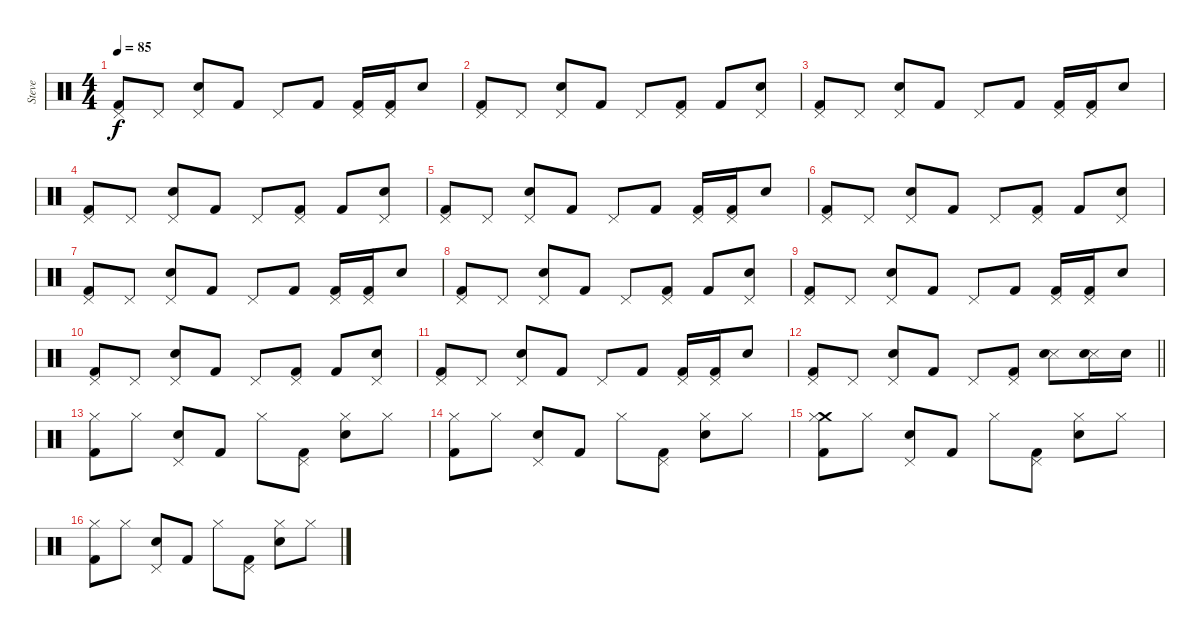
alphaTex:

\track ("Steve" "Steve") {instrument percussion}
\staff {score}
\articulation defaults
\ts (4 4)
\tempo 85
\clef neutral
\ks c
("Kick (hit) 2" "Pedal Hi-Hat (hit)").8{dy f} "Pedal Hi-Hat (hit)".8 ("Electric Snare (hit)" "Pedal Hi-Hat (hit)").8 "Kick (hit) 2".8 "Pedal Hi-Hat (hit)".8 "Kick (hit) 2".8 ("Kick (hit) 2" "Pedal Hi-Hat (hit)").16 ("Kick (hit) 2" "Pedal Hi-Hat (hit)").16 "Electric Snare (hit)".8 |
("Kick (hit) 2" "Pedal Hi-Hat (hit)").8 "Pedal Hi-Hat (hit)".8 ("Electric Snare (hit)" "Pedal Hi-Hat (hit)").8 "Kick (hit) 2".8 "Pedal Hi-Hat (hit)".8 ("Kick (hit) 2" "Pedal Hi-Hat (hit)").8 "Kick (hit) 2".8 ("Electric Snare (hit)" "Pedal Hi-Hat (hit)").8 |
("Kick (hit) 2" "Pedal Hi-Hat (hit)").8 "Pedal Hi-Hat (hit)".8 ("Electric Snare (hit)" "Pedal Hi-Hat (hit)").8 "Kick (hit) 2".8 "Pedal Hi-Hat (hit)".8 "Kick (hit) 2".8 ("Kick (hit) 2" "Pedal Hi-Hat (hit)").16 ("Kick (hit) 2" "Pedal Hi-Hat (hit)").16 "Electric Snare (hit)".8 |
("Kick (hit) 2" "Pedal Hi-Hat (hit)").8 "Pedal Hi-Hat (hit)".8 ("Electric Snare (hit)" "Pedal Hi-Hat (hit)").8 "Kick (hit) 2".8 "Pedal Hi-Hat (hit)".8 ("Kick (hit) 2" "Pedal Hi-Hat (hit)").8 "Kick (hit) 2".8 ("Electric Snare (hit)" "Pedal Hi-Hat (hit)").8 |
("Kick (hit) 2" "Pedal Hi-Hat (hit)").8 "Pedal Hi-Hat (hit)".8 ("Electric Snare (hit)" "Pedal Hi-Hat (hit)").8 "Kick (hit) 2".8 "Pedal Hi-Hat (hit)".8 "Kick (hit) 2".8 ("Kick (hit) 2" "Pedal Hi-Hat (hit)").16 ("Kick (hit) 2" "Pedal Hi-Hat (hit)").16 "Electric Snare (hit)".8 |
("Kick (hit) 2" "Pedal Hi-Hat (hit)").8 "Pedal Hi-Hat (hit)".8 ("Electric Snare (hit)" "Pedal Hi-Hat (hit)").8 "Kick (hit) 2".8 "Pedal Hi-Hat (hit)".8 ("Kick (hit) 2" "Pedal Hi-Hat (hit)").8 "Kick (hit) 2".8 ("Electric Snare (hit)" "Pedal Hi-Hat (hit)").8 |
("Kick (hit) 2" "Pedal Hi-Hat (hit)").8 "Pedal Hi-Hat (hit)".8 ("Electric Snare (hit)" "Pedal Hi-Hat (hit)").8 "Kick (hit) 2".8 "Pedal Hi-Hat (hit)".8 "Kick (hit) 2".8 ("Kick (hit) 2" "Pedal Hi-Hat (hit)").16 ("Kick (hit) 2" "Pedal Hi-Hat (hit)").16 "Electric Snare (hit)".8 |
("Kick (hit) 2" "Pedal Hi-Hat (hit)").8 "Pedal Hi-Hat (hit)".8 ("Electric Snare (hit)" "Pedal Hi-Hat (hit)").8 "Kick (hit) 2".8 "Pedal Hi-Hat (hit)".8 ("Kick (hit) 2" "Pedal Hi-Hat (hit)").8 "Kick (hit) 2".8 ("Electric Snare (hit)" "Pedal Hi-Hat (hit)").8 |
("Kick (hit) 2" "Pedal Hi-Hat (hit)").8 "Pedal Hi-Hat (hit)".8 ("Electric Snare (hit)" "Pedal Hi-Hat (hit)").8 "Kick (hit) 2".8 "Pedal Hi-Hat (hit)".8 "Kick (hit) 2".8 ("Kick (hit) 2" "Pedal Hi-Hat (hit)").16 ("Kick (hit) 2" "Pedal Hi-Hat (hit)").16 "Electric Snare (hit)".8 |
("Kick (hit) 2" "Pedal Hi-Hat (hit)").8 "Pedal Hi-Hat (hit)".8 ("Electric Snare (hit)" "Pedal Hi-Hat (hit)").8 "Kick (hit) 2".8 "Pedal Hi-Hat (hit)".8 ("Kick (hit) 2" "Pedal Hi-Hat (hit)").8 "Kick (hit) 2".8 ("Electric Snare (hit)" "Pedal Hi-Hat (hit)").8 |
("Kick (hit) 2" "Pedal Hi-Hat (hit)").8 "Pedal Hi-Hat (hit)".8 ("Electric Snare (hit)" "Pedal Hi-Hat (hit)").8 "Kick (hit) 2".8 "Pedal Hi-Hat (hit)".8 "Kick (hit) 2".8 ("Kick (hit) 2" "Pedal Hi-Hat (hit)").16 ("Kick (hit) 2" "Pedal Hi-Hat (hit)").16 "Electric Snare (hit)".8 |
\barLineRight lightlight
("Kick (hit) 2" "Pedal Hi-Hat (hit)").8 "Pedal Hi-Hat (hit)".8 ("Electric Snare (hit)" "Pedal Hi-Hat (hit)").8 "Kick (hit) 2".8 "Pedal Hi-Hat (hit)".8 ("Kick (hit) 2" "Pedal Hi-Hat (hit)").8 ("Snare (side stick) 3" "Electric Snare (hit)").8 ("Snare (side stick) 3" "Electric Snare (hit)").16 "Electric Snare (hit)".16 |
("Kick (hit) 2" "Hi-Hat (closed)").8 "Hi-Hat (closed)".8 ("Electric Snare (hit)" "Pedal Hi-Hat (hit)").8 "Kick (hit) 2".8 "Hi-Hat (closed)".8 ("Kick (hit) 2" "Pedal Hi-Hat (hit)").8 ("Electric Snare (hit)" "Hi-Hat (closed)").8 "Hi-Hat (closed)".8 |
("Kick (hit) 2" "Hi-Hat (closed)").8 "Hi-Hat (closed)".8 ("Electric Snare (hit)" "Pedal Hi-Hat (hit)").8 "Kick (hit) 2".8 "Hi-Hat (closed)".8 ("Kick (hit) 2" "Pedal Hi-Hat (hit)").8 ("Electric Snare (hit)" "Hi-Hat (closed)").8 "Hi-Hat (closed)".8 |
("Kick (hit) 2" "Crash medium (hit)" "Hi-Hat (closed)").8 "Hi-Hat (closed)".8 ("Electric Snare (hit)" "Pedal Hi-Hat (hit)").8 "Kick (hit) 2".8 "Hi-Hat (closed)".8 ("Kick (hit) 2" "Pedal Hi-Hat (hit)").8 ("Electric Snare (hit)" "Hi-Hat (closed)").8 "Hi-Hat (closed)".8 |
("Kick (hit) 2" "Hi-Hat (closed)").8 "Hi-Hat (closed)".8 ("Electric Snare (hit)" "Pedal Hi-Hat (hit)").8 "Kick (hit) 2".8 "Hi-Hat (closed)".8 ("Kick (hit) 2" "Pedal Hi-Hat (hit)").8 ("Electric Snare (hit)" "Hi-Hat (closed)").8 "Hi-Hat (closed)".8
